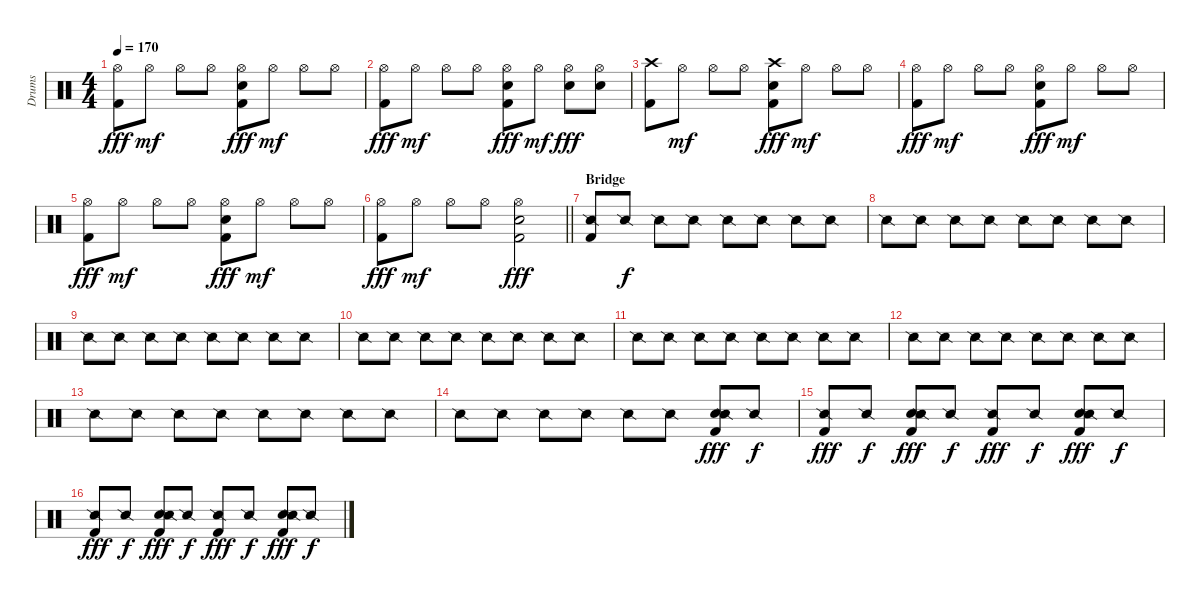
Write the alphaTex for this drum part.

\track ("Drums" "Drums") {instrument percussion}
\staff {score}
\articulation defaults
\ts (4 4)
\tempo 170
\clef neutral
\ks c
("Hi-Hat (open)" "Kick (hit) 2").8{dy fff} "Hi-Hat (open)".8{dy mf} "Hi-Hat (open)".8 "Hi-Hat (open)".8 ("Hi-Hat (open)" "Snare (hit) 2" "Kick (hit) 2").8{dy fff} "Hi-Hat (open)".8{dy mf} "Hi-Hat (open)".8 "Hi-Hat (open)".8 |
("Hi-Hat (open)" "Kick (hit) 2").8{dy fff} "Hi-Hat (open)".8{dy mf} "Hi-Hat (open)".8 "Hi-Hat (open)".8 ("Hi-Hat (open)" "Snare (hit) 2" "Kick (hit) 2").8{dy fff} "Hi-Hat (open)".8{dy mf} ("Hi-Hat (open)" "Snare (hit) 2").8{dy fff} ("Hi-Hat (open)" "Snare (hit) 2").8 |
("Crash high (hit)" "Kick (hit) 2").8 "Hi-Hat (open)".8{dy mf} "Hi-Hat (open)".8 "Hi-Hat (open)".8 ("Crash high (hit)" "Snare (hit) 2" "Kick (hit) 2").8{dy fff} "Hi-Hat (open)".8{dy mf} "Hi-Hat (open)".8 "Hi-Hat (open)".8 |
("Hi-Hat (open)" "Kick (hit) 2").8{dy fff} "Hi-Hat (open)".8{dy mf} "Hi-Hat (open)".8 "Hi-Hat (open)".8 ("Hi-Hat (open)" "Snare (hit) 2" "Kick (hit) 2").8{dy fff} "Hi-Hat (open)".8{dy mf} "Hi-Hat (open)".8 "Hi-Hat (open)".8 |
("Hi-Hat (open)" "Kick (hit) 2").8{dy fff} "Hi-Hat (open)".8{dy mf} "Hi-Hat (open)".8 "Hi-Hat (open)".8 ("Hi-Hat (open)" "Snare (hit) 2" "Kick (hit) 2").8{dy fff} "Hi-Hat (open)".8{dy mf} "Hi-Hat (open)".8 "Hi-Hat (open)".8 |
\barLineRight lightlight
("Hi-Hat (open)" "Kick (hit) 2").8{dy fff} "Hi-Hat (open)".8{dy mf} "Hi-Hat (open)".8 "Hi-Hat (open)".8 ("Hi-Hat (open)" "Snare (hit) 2" "Kick (hit) 2").2{dy fff} |
\section ("" "Bridge")
("Kick (hit) 2" "Snare (side stick) 2").8 "Snare (side stick) 2".8{dy f} "Snare (side stick) 2".8 "Snare (side stick) 2".8 "Snare (side stick) 2".8 "Snare (side stick) 2".8 "Snare (side stick) 2".8 "Snare (side stick) 2".8 |
"Snare (side stick) 2".8 "Snare (side stick) 2".8 "Snare (side stick) 2".8 "Snare (side stick) 2".8 "Snare (side stick) 2".8 "Snare (side stick) 2".8 "Snare (side stick) 2".8 "Snare (side stick) 2".8 |
"Snare (side stick) 2".8 "Snare (side stick) 2".8 "Snare (side stick) 2".8 "Snare (side stick) 2".8 "Snare (side stick) 2".8 "Snare (side stick) 2".8 "Snare (side stick) 2".8 "Snare (side stick) 2".8 |
"Snare (side stick) 2".8 "Snare (side stick) 2".8 "Snare (side stick) 2".8 "Snare (side stick) 2".8 "Snare (side stick) 2".8 "Snare (side stick) 2".8 "Snare (side stick) 2".8 "Snare (side stick) 2".8 |
"Snare (side stick) 2".8 "Snare (side stick) 2".8 "Snare (side stick) 2".8 "Snare (side stick) 2".8 "Snare (side stick) 2".8 "Snare (side stick) 2".8 "Snare (side stick) 2".8 "Snare (side stick) 2".8 |
"Snare (side stick) 2".8 "Snare (side stick) 2".8 "Snare (side stick) 2".8 "Snare (side stick) 2".8 "Snare (side stick) 2".8 "Snare (side stick) 2".8 "Snare (side stick) 2".8 "Snare (side stick) 2".8 |
"Snare (side stick) 2".8 "Snare (side stick) 2".8 "Snare (side stick) 2".8 "Snare (side stick) 2".8 "Snare (side stick) 2".8 "Snare (side stick) 2".8 "Snare (side stick) 2".8 "Snare (side stick) 2".8 |
"Snare (side stick) 2".8 "Snare (side stick) 2".8 "Snare (side stick) 2".8 "Snare (side stick) 2".8 "Snare (side stick) 2".8 "Snare (side stick) 2".8 ("Snare (hit) 2" "Kick (hit) 2" "Snare (side stick) 2").8{dy fff} "Snare (side stick) 2".8{dy f} |
("Kick (hit) 2" "Snare (side stick) 2").8{dy fff} "Snare (side stick) 2".8{dy f} ("Snare (hit) 2" "Kick (hit) 2" "Snare (side stick) 2").8{dy fff} "Snare (side stick) 2".8{dy f} ("Kick (hit) 2" "Snare (side stick) 2").8{dy fff} "Snare (side stick) 2".8{dy f} ("Snare (hit) 2" "Kick (hit) 2" "Snare (side stick) 2").8{dy fff} "Snare (side stick) 2".8{dy f} |
("Kick (hit) 2" "Snare (side stick) 2").8{dy fff} "Snare (side stick) 2".8{dy f} ("Snare (hit) 2" "Kick (hit) 2" "Snare (side stick) 2").8{dy fff} "Snare (side stick) 2".8{dy f} ("Kick (hit) 2" "Snare (side stick) 2").8{dy fff} "Snare (side stick) 2".8{dy f} ("Snare (hit) 2" "Kick (hit) 2" "Snare (side stick) 2").8{dy fff} "Snare (side stick) 2".8{dy f}
